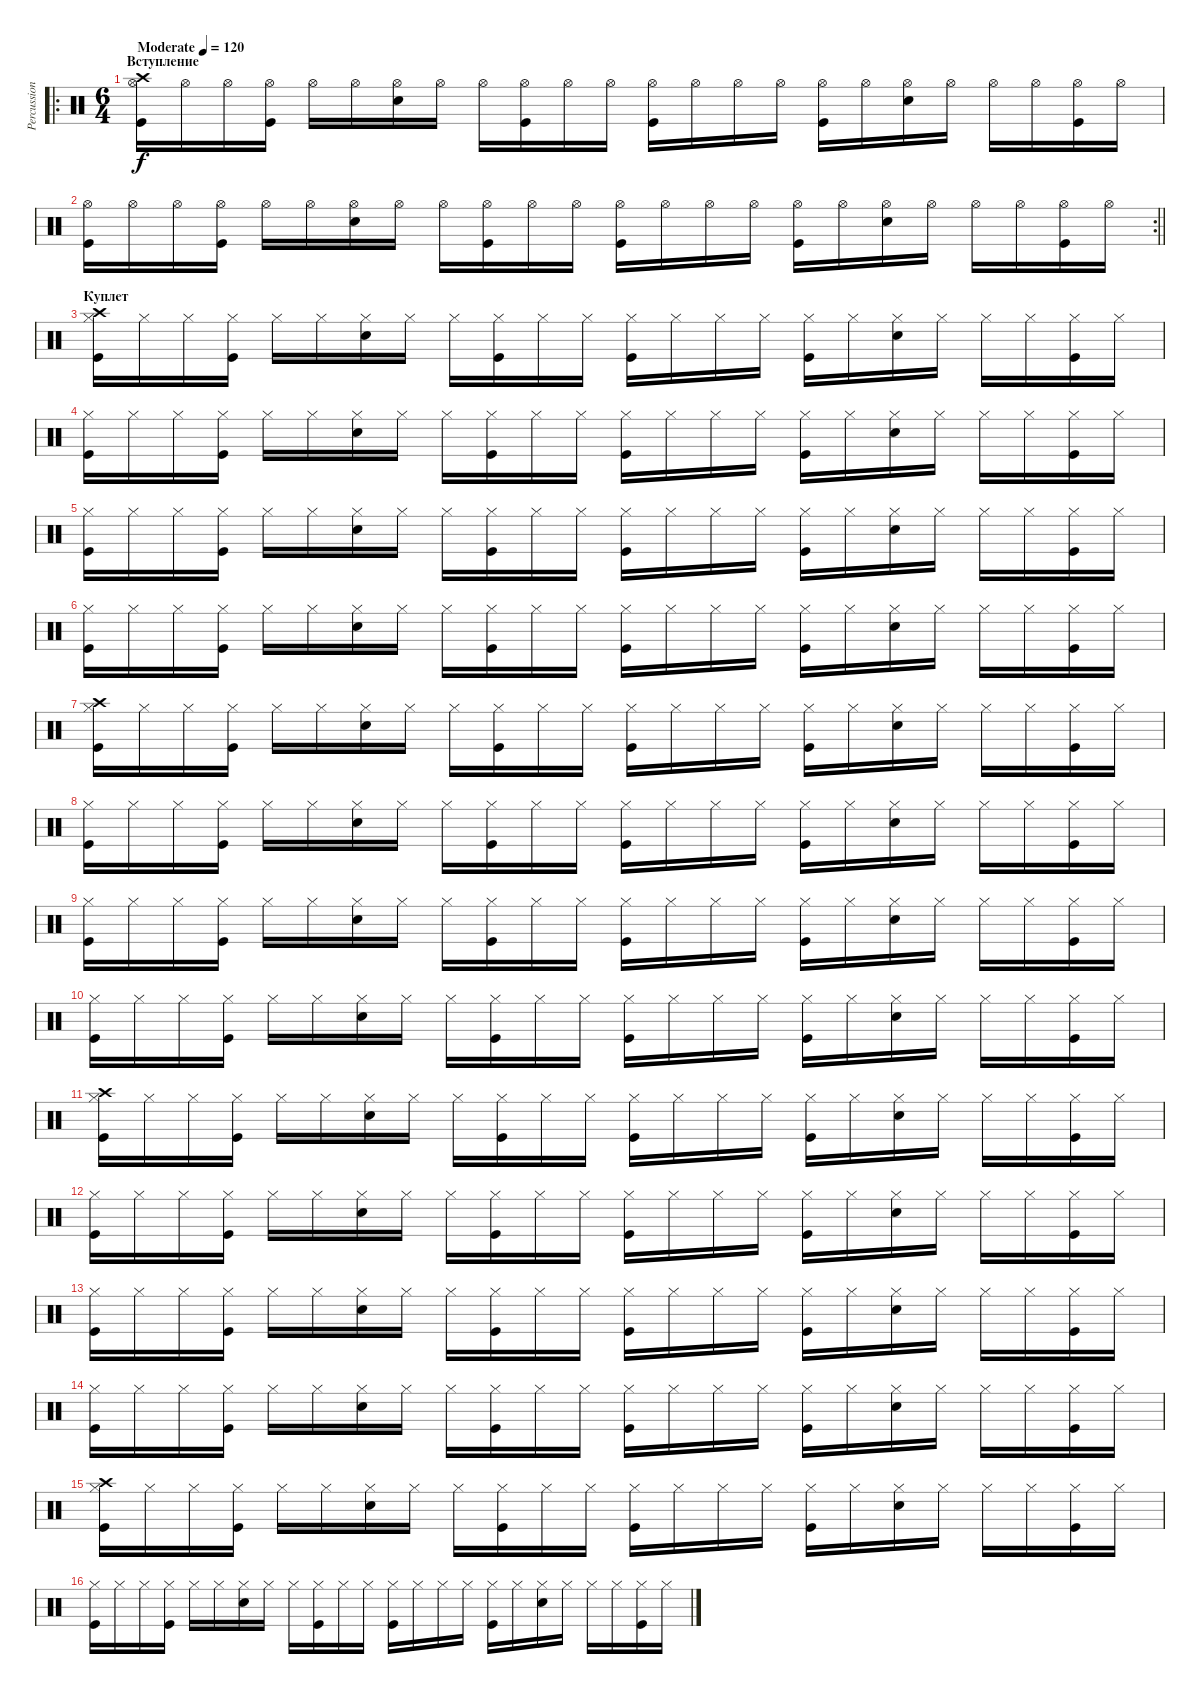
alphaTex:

\track ("Percussion" "Percussion") {instrument percussion}
\staff {score}
\articulation defaults
\ro
\ts (6 4)
\section ("" "Вступление")
\tempo (120 "Moderate")
\clef neutral
\ks c
("Hi-Hat (open)" "Crash high (hit)" "Kick (hit)").16{dy f} "Hi-Hat (open)".16 "Hi-Hat (open)".16 ("Hi-Hat (open)" "Kick (hit)").16 "Hi-Hat (open)".16 "Hi-Hat (open)".16 ("Hi-Hat (open)" "Snare (hit) 2").16 "Hi-Hat (open)".16 "Hi-Hat (open)".16 ("Hi-Hat (open)" "Kick (hit)").16 "Hi-Hat (open)".16 "Hi-Hat (open)".16 ("Hi-Hat (open)" "Kick (hit)").16 "Hi-Hat (open)".16 "Hi-Hat (open)".16 "Hi-Hat (open)".16 ("Hi-Hat (open)" "Kick (hit)").16 "Hi-Hat (open)".16 ("Hi-Hat (open)" "Snare (hit) 2").16 "Hi-Hat (open)".16 "Hi-Hat (open)".16 "Hi-Hat (open)".16 ("Hi-Hat (open)" "Kick (hit)").16 "Hi-Hat (open)".16 |
\rc 2
\barLineRight lightlight
("Hi-Hat (open)" "Kick (hit)").16 "Hi-Hat (open)".16 "Hi-Hat (open)".16 ("Hi-Hat (open)" "Kick (hit)").16 "Hi-Hat (open)".16 "Hi-Hat (open)".16 ("Hi-Hat (open)" "Snare (hit) 2").16 "Hi-Hat (open)".16 "Hi-Hat (open)".16 ("Hi-Hat (open)" "Kick (hit)").16 "Hi-Hat (open)".16 "Hi-Hat (open)".16 ("Hi-Hat (open)" "Kick (hit)").16 "Hi-Hat (open)".16 "Hi-Hat (open)".16 "Hi-Hat (open)".16 ("Hi-Hat (open)" "Kick (hit)").16 "Hi-Hat (open)".16 ("Hi-Hat (open)" "Snare (hit) 2").16 "Hi-Hat (open)".16 "Hi-Hat (open)".16 "Hi-Hat (open)".16 ("Hi-Hat (open)" "Kick (hit)").16 "Hi-Hat (open)".16 |
\section ("" "Куплет")
("Hi-Hat (closed)" "Crash high (hit)" "Kick (hit)").16 "Hi-Hat (closed)".16 "Hi-Hat (closed)".16 ("Hi-Hat (closed)" "Kick (hit)").16 "Hi-Hat (closed)".16 "Hi-Hat (closed)".16 ("Hi-Hat (closed)" "Snare (hit) 2").16 "Hi-Hat (closed)".16 "Hi-Hat (closed)".16 ("Hi-Hat (closed)" "Kick (hit)").16 "Hi-Hat (closed)".16 "Hi-Hat (closed)".16 ("Hi-Hat (closed)" "Kick (hit)").16 "Hi-Hat (closed)".16 "Hi-Hat (closed)".16 "Hi-Hat (closed)".16 ("Hi-Hat (closed)" "Kick (hit)").16 "Hi-Hat (closed)".16 ("Hi-Hat (closed)" "Snare (hit) 2").16 "Hi-Hat (closed)".16 "Hi-Hat (closed)".16 "Hi-Hat (closed)".16 ("Hi-Hat (closed)" "Kick (hit)").16 "Hi-Hat (closed)".16 |
("Hi-Hat (closed)" "Kick (hit)").16 "Hi-Hat (closed)".16 "Hi-Hat (closed)".16 ("Hi-Hat (closed)" "Kick (hit)").16 "Hi-Hat (closed)".16 "Hi-Hat (closed)".16 ("Hi-Hat (closed)" "Snare (hit) 2").16 "Hi-Hat (closed)".16 "Hi-Hat (closed)".16 ("Hi-Hat (closed)" "Kick (hit)").16 "Hi-Hat (closed)".16 "Hi-Hat (closed)".16 ("Hi-Hat (closed)" "Kick (hit)").16 "Hi-Hat (closed)".16 "Hi-Hat (closed)".16 "Hi-Hat (closed)".16 ("Hi-Hat (closed)" "Kick (hit)").16 "Hi-Hat (closed)".16 ("Hi-Hat (closed)" "Snare (hit) 2").16 "Hi-Hat (closed)".16 "Hi-Hat (closed)".16 "Hi-Hat (closed)".16 ("Hi-Hat (closed)" "Kick (hit)").16 "Hi-Hat (closed)".16 |
("Hi-Hat (closed)" "Kick (hit)").16 "Hi-Hat (closed)".16 "Hi-Hat (closed)".16 ("Hi-Hat (closed)" "Kick (hit)").16 "Hi-Hat (closed)".16 "Hi-Hat (closed)".16 ("Hi-Hat (closed)" "Snare (hit) 2").16 "Hi-Hat (closed)".16 "Hi-Hat (closed)".16 ("Hi-Hat (closed)" "Kick (hit)").16 "Hi-Hat (closed)".16 "Hi-Hat (closed)".16 ("Hi-Hat (closed)" "Kick (hit)").16 "Hi-Hat (closed)".16 "Hi-Hat (closed)".16 "Hi-Hat (closed)".16 ("Hi-Hat (closed)" "Kick (hit)").16 "Hi-Hat (closed)".16 ("Hi-Hat (closed)" "Snare (hit) 2").16 "Hi-Hat (closed)".16 "Hi-Hat (closed)".16 "Hi-Hat (closed)".16 ("Hi-Hat (closed)" "Kick (hit)").16 "Hi-Hat (closed)".16 |
("Hi-Hat (closed)" "Kick (hit)").16 "Hi-Hat (closed)".16 "Hi-Hat (closed)".16 ("Hi-Hat (closed)" "Kick (hit)").16 "Hi-Hat (closed)".16 "Hi-Hat (closed)".16 ("Hi-Hat (closed)" "Snare (hit) 2").16 "Hi-Hat (closed)".16 "Hi-Hat (closed)".16 ("Hi-Hat (closed)" "Kick (hit)").16 "Hi-Hat (closed)".16 "Hi-Hat (closed)".16 ("Hi-Hat (closed)" "Kick (hit)").16 "Hi-Hat (closed)".16 "Hi-Hat (closed)".16 "Hi-Hat (closed)".16 ("Hi-Hat (closed)" "Kick (hit)").16 "Hi-Hat (closed)".16 ("Hi-Hat (closed)" "Snare (hit) 2").16 "Hi-Hat (closed)".16 "Hi-Hat (closed)".16 "Hi-Hat (closed)".16 ("Hi-Hat (closed)" "Kick (hit)").16 "Hi-Hat (closed)".16 |
("Hi-Hat (closed)" "Crash high (hit)" "Kick (hit)").16 "Hi-Hat (closed)".16 "Hi-Hat (closed)".16 ("Hi-Hat (closed)" "Kick (hit)").16 "Hi-Hat (closed)".16 "Hi-Hat (closed)".16 ("Hi-Hat (closed)" "Snare (hit) 2").16 "Hi-Hat (closed)".16 "Hi-Hat (closed)".16 ("Hi-Hat (closed)" "Kick (hit)").16 "Hi-Hat (closed)".16 "Hi-Hat (closed)".16 ("Hi-Hat (closed)" "Kick (hit)").16 "Hi-Hat (closed)".16 "Hi-Hat (closed)".16 "Hi-Hat (closed)".16 ("Hi-Hat (closed)" "Kick (hit)").16 "Hi-Hat (closed)".16 ("Hi-Hat (closed)" "Snare (hit) 2").16 "Hi-Hat (closed)".16 "Hi-Hat (closed)".16 "Hi-Hat (closed)".16 ("Hi-Hat (closed)" "Kick (hit)").16 "Hi-Hat (closed)".16 |
("Hi-Hat (closed)" "Kick (hit)").16 "Hi-Hat (closed)".16 "Hi-Hat (closed)".16 ("Hi-Hat (closed)" "Kick (hit)").16 "Hi-Hat (closed)".16 "Hi-Hat (closed)".16 ("Hi-Hat (closed)" "Snare (hit) 2").16 "Hi-Hat (closed)".16 "Hi-Hat (closed)".16 ("Hi-Hat (closed)" "Kick (hit)").16 "Hi-Hat (closed)".16 "Hi-Hat (closed)".16 ("Hi-Hat (closed)" "Kick (hit)").16 "Hi-Hat (closed)".16 "Hi-Hat (closed)".16 "Hi-Hat (closed)".16 ("Hi-Hat (closed)" "Kick (hit)").16 "Hi-Hat (closed)".16 ("Hi-Hat (closed)" "Snare (hit) 2").16 "Hi-Hat (closed)".16 "Hi-Hat (closed)".16 "Hi-Hat (closed)".16 ("Hi-Hat (closed)" "Kick (hit)").16 "Hi-Hat (closed)".16 |
("Hi-Hat (closed)" "Kick (hit)").16 "Hi-Hat (closed)".16 "Hi-Hat (closed)".16 ("Hi-Hat (closed)" "Kick (hit)").16 "Hi-Hat (closed)".16 "Hi-Hat (closed)".16 ("Hi-Hat (closed)" "Snare (hit) 2").16 "Hi-Hat (closed)".16 "Hi-Hat (closed)".16 ("Hi-Hat (closed)" "Kick (hit)").16 "Hi-Hat (closed)".16 "Hi-Hat (closed)".16 ("Hi-Hat (closed)" "Kick (hit)").16 "Hi-Hat (closed)".16 "Hi-Hat (closed)".16 "Hi-Hat (closed)".16 ("Hi-Hat (closed)" "Kick (hit)").16 "Hi-Hat (closed)".16 ("Hi-Hat (closed)" "Snare (hit) 2").16 "Hi-Hat (closed)".16 "Hi-Hat (closed)".16 "Hi-Hat (closed)".16 ("Hi-Hat (closed)" "Kick (hit)").16 "Hi-Hat (closed)".16 |
("Hi-Hat (closed)" "Kick (hit)").16 "Hi-Hat (closed)".16 "Hi-Hat (closed)".16 ("Hi-Hat (closed)" "Kick (hit)").16 "Hi-Hat (closed)".16 "Hi-Hat (closed)".16 ("Hi-Hat (closed)" "Snare (hit) 2").16 "Hi-Hat (closed)".16 "Hi-Hat (closed)".16 ("Hi-Hat (closed)" "Kick (hit)").16 "Hi-Hat (closed)".16 "Hi-Hat (closed)".16 ("Hi-Hat (closed)" "Kick (hit)").16 "Hi-Hat (closed)".16 "Hi-Hat (closed)".16 "Hi-Hat (closed)".16 ("Hi-Hat (closed)" "Kick (hit)").16 "Hi-Hat (closed)".16 ("Hi-Hat (closed)" "Snare (hit) 2").16 "Hi-Hat (closed)".16 "Hi-Hat (closed)".16 "Hi-Hat (closed)".16 ("Hi-Hat (closed)" "Kick (hit)").16 "Hi-Hat (closed)".16 |
("Hi-Hat (closed)" "Crash high (hit)" "Kick (hit)").16 "Hi-Hat (closed)".16 "Hi-Hat (closed)".16 ("Hi-Hat (closed)" "Kick (hit)").16 "Hi-Hat (closed)".16 "Hi-Hat (closed)".16 ("Hi-Hat (closed)" "Snare (hit) 2").16 "Hi-Hat (closed)".16 "Hi-Hat (closed)".16 ("Hi-Hat (closed)" "Kick (hit)").16 "Hi-Hat (closed)".16 "Hi-Hat (closed)".16 ("Hi-Hat (closed)" "Kick (hit)").16 "Hi-Hat (closed)".16 "Hi-Hat (closed)".16 "Hi-Hat (closed)".16 ("Hi-Hat (closed)" "Kick (hit)").16 "Hi-Hat (closed)".16 ("Hi-Hat (closed)" "Snare (hit) 2").16 "Hi-Hat (closed)".16 "Hi-Hat (closed)".16 "Hi-Hat (closed)".16 ("Hi-Hat (closed)" "Kick (hit)").16 "Hi-Hat (closed)".16 |
("Hi-Hat (closed)" "Kick (hit)").16 "Hi-Hat (closed)".16 "Hi-Hat (closed)".16 ("Hi-Hat (closed)" "Kick (hit)").16 "Hi-Hat (closed)".16 "Hi-Hat (closed)".16 ("Hi-Hat (closed)" "Snare (hit) 2").16 "Hi-Hat (closed)".16 "Hi-Hat (closed)".16 ("Hi-Hat (closed)" "Kick (hit)").16 "Hi-Hat (closed)".16 "Hi-Hat (closed)".16 ("Hi-Hat (closed)" "Kick (hit)").16 "Hi-Hat (closed)".16 "Hi-Hat (closed)".16 "Hi-Hat (closed)".16 ("Hi-Hat (closed)" "Kick (hit)").16 "Hi-Hat (closed)".16 ("Hi-Hat (closed)" "Snare (hit) 2").16 "Hi-Hat (closed)".16 "Hi-Hat (closed)".16 "Hi-Hat (closed)".16 ("Hi-Hat (closed)" "Kick (hit)").16 "Hi-Hat (closed)".16 |
("Hi-Hat (closed)" "Kick (hit)").16 "Hi-Hat (closed)".16 "Hi-Hat (closed)".16 ("Hi-Hat (closed)" "Kick (hit)").16 "Hi-Hat (closed)".16 "Hi-Hat (closed)".16 ("Hi-Hat (closed)" "Snare (hit) 2").16 "Hi-Hat (closed)".16 "Hi-Hat (closed)".16 ("Hi-Hat (closed)" "Kick (hit)").16 "Hi-Hat (closed)".16 "Hi-Hat (closed)".16 ("Hi-Hat (closed)" "Kick (hit)").16 "Hi-Hat (closed)".16 "Hi-Hat (closed)".16 "Hi-Hat (closed)".16 ("Hi-Hat (closed)" "Kick (hit)").16 "Hi-Hat (closed)".16 ("Hi-Hat (closed)" "Snare (hit) 2").16 "Hi-Hat (closed)".16 "Hi-Hat (closed)".16 "Hi-Hat (closed)".16 ("Hi-Hat (closed)" "Kick (hit)").16 "Hi-Hat (closed)".16 |
("Hi-Hat (closed)" "Kick (hit)").16 "Hi-Hat (closed)".16 "Hi-Hat (closed)".16 ("Hi-Hat (closed)" "Kick (hit)").16 "Hi-Hat (closed)".16 "Hi-Hat (closed)".16 ("Hi-Hat (closed)" "Snare (hit) 2").16 "Hi-Hat (closed)".16 "Hi-Hat (closed)".16 ("Hi-Hat (closed)" "Kick (hit)").16 "Hi-Hat (closed)".16 "Hi-Hat (closed)".16 ("Hi-Hat (closed)" "Kick (hit)").16 "Hi-Hat (closed)".16 "Hi-Hat (closed)".16 "Hi-Hat (closed)".16 ("Hi-Hat (closed)" "Kick (hit)").16 "Hi-Hat (closed)".16 ("Hi-Hat (closed)" "Snare (hit) 2").16 "Hi-Hat (closed)".16 "Hi-Hat (closed)".16 "Hi-Hat (closed)".16 ("Hi-Hat (closed)" "Kick (hit)").16 "Hi-Hat (closed)".16 |
("Hi-Hat (closed)" "Crash high (hit)" "Kick (hit)").16 "Hi-Hat (closed)".16 "Hi-Hat (closed)".16 ("Hi-Hat (closed)" "Kick (hit)").16 "Hi-Hat (closed)".16 "Hi-Hat (closed)".16 ("Hi-Hat (closed)" "Snare (hit) 2").16 "Hi-Hat (closed)".16 "Hi-Hat (closed)".16 ("Hi-Hat (closed)" "Kick (hit)").16 "Hi-Hat (closed)".16 "Hi-Hat (closed)".16 ("Hi-Hat (closed)" "Kick (hit)").16 "Hi-Hat (closed)".16 "Hi-Hat (closed)".16 "Hi-Hat (closed)".16 ("Hi-Hat (closed)" "Kick (hit)").16 "Hi-Hat (closed)".16 ("Hi-Hat (closed)" "Snare (hit) 2").16 "Hi-Hat (closed)".16 "Hi-Hat (closed)".16 "Hi-Hat (closed)".16 ("Hi-Hat (closed)" "Kick (hit)").16 "Hi-Hat (closed)".16 |
("Hi-Hat (closed)" "Kick (hit)").16 "Hi-Hat (closed)".16 "Hi-Hat (closed)".16 ("Hi-Hat (closed)" "Kick (hit)").16 "Hi-Hat (closed)".16 "Hi-Hat (closed)".16 ("Hi-Hat (closed)" "Snare (hit) 2").16 "Hi-Hat (closed)".16 "Hi-Hat (closed)".16 ("Hi-Hat (closed)" "Kick (hit)").16 "Hi-Hat (closed)".16 "Hi-Hat (closed)".16 ("Hi-Hat (closed)" "Kick (hit)").16 "Hi-Hat (closed)".16 "Hi-Hat (closed)".16 "Hi-Hat (closed)".16 ("Hi-Hat (closed)" "Kick (hit)").16 "Hi-Hat (closed)".16 ("Hi-Hat (closed)" "Snare (hit) 2").16 "Hi-Hat (closed)".16 "Hi-Hat (closed)".16 "Hi-Hat (closed)".16 ("Hi-Hat (closed)" "Kick (hit)").16 "Hi-Hat (closed)".16
